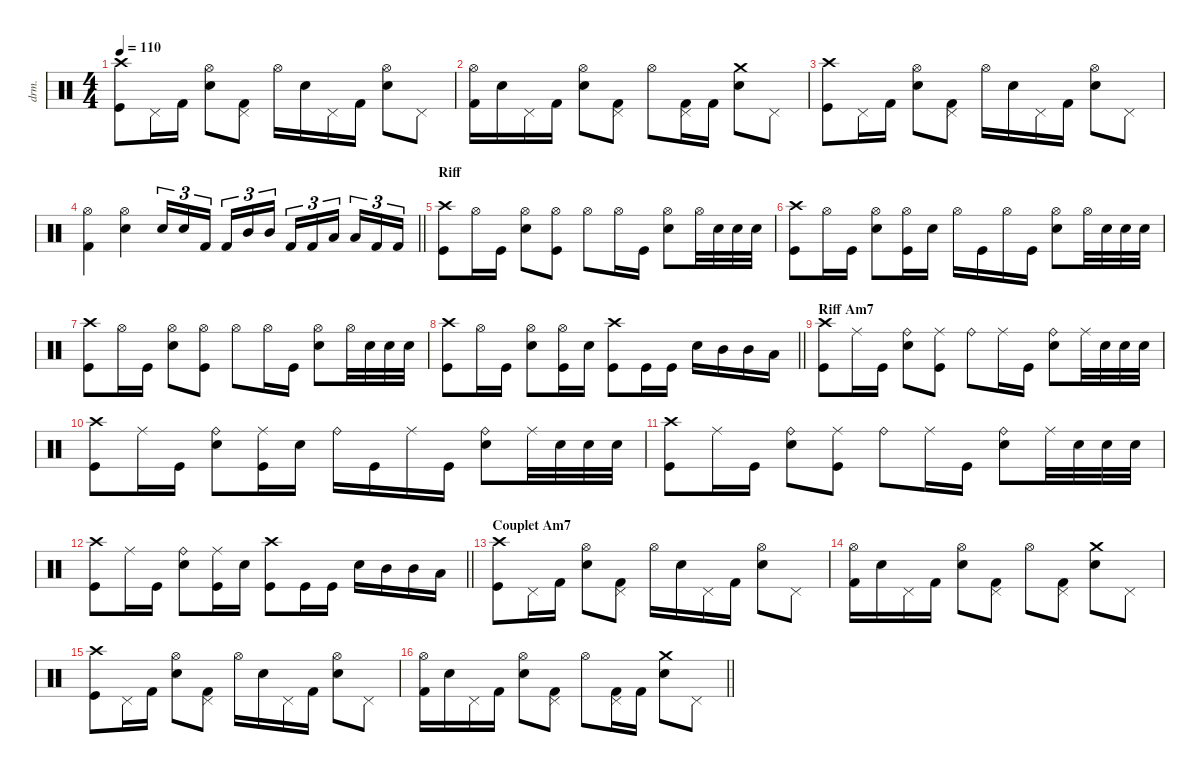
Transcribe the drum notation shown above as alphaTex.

\defaultSystemsLayout 4
\hideDynamics
\bracketExtendMode nobrackets
\otherSystemsTrackNameOrientation horizontal
\track ("Manu" "drm.") {instrument percussion}
\staff {score}
\articulation defaults
\ts (4 4)
\tempo 110
\clef neutral
\ks c
("Crash high (hit)" "Kick (hit)").8{dy f} "Pedal Hi-Hat (hit)".16 "Kick (hit) 2".16 ("Hi-Hat (open)" "Snare (hit) 2").8 ("Pedal Hi-Hat (hit)" "Kick (hit) 2").8 "Hi-Hat (open)".16 "Snare (hit) 2".16{dy mp} "Pedal Hi-Hat (hit)".16{dy f} "Kick (hit) 2".16{dy mp} ("Hi-Hat (open)" "Snare (hit) 2").8{dy f} "Pedal Hi-Hat (hit)".8 |
("Hi-Hat (open)" "Kick (hit) 2").16 "Snare (hit) 2".16{dy mp} "Pedal Hi-Hat (hit)".16{dy f} "Kick (hit) 2".16 ("Hi-Hat (open)" "Snare (hit) 2").8 ("Pedal Hi-Hat (hit)" "Kick (hit) 2").8 "Hi-Hat (open)".8 ("Pedal Hi-Hat (hit)" "Kick (hit) 2").16 "Kick (hit) 2".16 ("Snare (hit) 2" "Crash medium (hit)").8 "Pedal Hi-Hat (hit)".8 |
("Crash high (hit)" "Kick (hit)").8 "Pedal Hi-Hat (hit)".16 "Kick (hit) 2".16 ("Hi-Hat (open)" "Snare (hit) 2").8 ("Pedal Hi-Hat (hit)" "Kick (hit) 2").8 "Hi-Hat (open)".16 "Snare (hit) 2".16{dy mp} "Pedal Hi-Hat (hit)".16{dy f} "Kick (hit) 2".16{dy mp} ("Hi-Hat (open)" "Snare (hit) 2").8{dy f} "Pedal Hi-Hat (hit)".8 |
\barLineRight lightlight
("Hi-Hat (open)" "Kick (hit) 2").4 ("Hi-Hat (open)" "Snare (hit) 2").4 "Snare (hit) 2".16{tu (3 2)} "Snare (hit) 2".16{tu (3 2)} "Kick (hit) 2".16{tu (3 2)} "Kick (hit) 2".16{tu (3 2)} "Mid Tom (hit)".16{tu (3 2)} "Mid Tom (hit)".16{tu (3 2)} "Kick (hit) 2".16{tu (3 2)} "Kick (hit) 2".16{tu (3 2)} "Low Tom (hit)".16{tu (3 2)} "Low Tom (hit)".16{tu (3 2)} "Kick (hit) 2".16{tu (3 2)} "Kick (hit) 2".16{tu (3 2)} |
\section ("" "Riff")
("Crash high (hit)" "Kick (hit)").8 "Hi-Hat (open)".16{dy p} "Kick (hit)".16{dy f} ("Hi-Hat (open)" "Snare (hit) 2").8 ("Hi-Hat (open)" "Kick (hit)").8{dy p} "Hi-Hat (open)".8{dy f} "Hi-Hat (open)".16{dy p} "Kick (hit)".16{dy f} ("Hi-Hat (open)" "Snare (hit) 2").8 "Hi-Hat (open)".32{dy p} "Snare (hit) 2".32{dy pp} "Snare (hit) 2".32 "Snare (hit) 2".32 |
("Crash high (hit)" "Kick (hit)").8{dy f} "Hi-Hat (open)".16{dy p} "Kick (hit)".16{dy f} ("Hi-Hat (open)" "Snare (hit) 2").8 ("Hi-Hat (open)" "Kick (hit)").16{dy p} "Snare (hit) 2".16{dy pp} "Hi-Hat (open)".16{dy f} "Kick (hit)".16 "Hi-Hat (open)".16{dy p} "Kick (hit)".16{dy f} ("Hi-Hat (open)" "Snare (hit) 2").8 "Hi-Hat (open)".32{dy p} "Snare (hit) 2".32{dy pp} "Snare (hit) 2".32 "Snare (hit) 2".32 |
("Crash high (hit)" "Kick (hit)").8{dy f} "Hi-Hat (open)".16{dy p} "Kick (hit)".16{dy f} ("Hi-Hat (open)" "Snare (hit) 2").8 ("Hi-Hat (open)" "Kick (hit)").8{dy p} "Hi-Hat (open)".8{dy f} "Hi-Hat (open)".16{dy p} "Kick (hit)".16{dy f} ("Hi-Hat (open)" "Snare (hit) 2").8 "Hi-Hat (open)".32{dy p} "Snare (hit) 2".32{dy mp} "Snare (hit) 2".32 "Snare (hit) 2".32 |
\barLineRight lightlight
("Crash high (hit)" "Kick (hit)").8{dy f} "Hi-Hat (open)".16{dy p} "Kick (hit)".16{dy f} ("Hi-Hat (open)" "Snare (hit) 2").8 ("Hi-Hat (open)" "Kick (hit)").16{dy p} "Snare (hit) 2".16{dy pp} ("Crash high (hit)" "Kick (hit)").8{dy f} "Kick (hit)".16 "Kick (hit)".16 "Snare (hit) 2".16 "Mid Tom (hit)".16 "Mid Tom (hit)".16 "Low Tom (hit)".16 |
\section ("" "Riff Am7")
("Crash high (hit)" "Kick (hit)").8 "Ride (middle)".16{dy mf} "Kick (hit)".16{dy f} ("Ride (bell)" "Snare (hit) 2").8 ("Ride (middle)" "Kick (hit)").8{dy mf} "Ride (bell)".8{dy f} "Ride (middle)".16{dy mf} "Kick (hit)".16{dy f} ("Ride (bell)" "Snare (hit) 2").8 "Ride (middle)".32{dy mf} "Snare (hit) 2".32{dy pp} "Snare (hit) 2".32 "Snare (hit) 2".32 |
("Crash high (hit)" "Kick (hit)").8{dy f} "Ride (middle)".16{dy mf} "Kick (hit)".16{dy f} ("Ride (bell)" "Snare (hit) 2").8 ("Ride (middle)" "Kick (hit)").16{dy mf} "Snare (hit) 2".16{dy pp} "Ride (bell)".16{dy mf} "Kick (hit)".16{dy f} "Ride (middle)".16{dy mf} "Kick (hit)".16{dy f} ("Ride (bell)" "Snare (hit) 2").8 "Ride (middle)".32{dy mf} "Snare (hit) 2".32{dy pp} "Snare (hit) 2".32 "Snare (hit) 2".32 |
("Crash high (hit)" "Kick (hit)").8{dy f} "Ride (middle)".16{dy mf} "Kick (hit)".16{dy f} ("Ride (bell)" "Snare (hit) 2").8 ("Ride (middle)" "Kick (hit)").8{dy mf} "Ride (bell)".8{dy f} "Ride (middle)".16{dy mf} "Kick (hit)".16{dy f} ("Ride (bell)" "Snare (hit) 2").8 "Ride (middle)".32{dy mf} "Snare (hit) 2".32{dy pp} "Snare (hit) 2".32 "Snare (hit) 2".32 |
\barLineRight lightlight
("Crash high (hit)" "Kick (hit)").8{dy f} "Ride (middle)".16{dy mf} "Kick (hit)".16{dy f} ("Ride (bell)" "Snare (hit) 2").8 ("Ride (middle)" "Kick (hit)").16{dy mf} "Snare (hit) 2".16{dy pp} ("Crash high (hit)" "Kick (hit)").8{dy f} "Kick (hit)".16 "Kick (hit)".16 "Snare (hit) 2".16 "Mid Tom (hit)".16 "Mid Tom (hit)".16 "Low Tom (hit)".16 |
\section ("" "Couplet Am7")
("Crash high (hit)" "Kick (hit)").8 "Pedal Hi-Hat (hit)".16 "Kick (hit) 2".16 ("Hi-Hat (open)" "Snare (hit) 2").8 ("Pedal Hi-Hat (hit)" "Kick (hit) 2").8 "Hi-Hat (open)".16 "Snare (hit) 2".16{dy mp} "Pedal Hi-Hat (hit)".16{dy f} "Kick (hit) 2".16{dy mp} ("Hi-Hat (open)" "Snare (hit) 2").8{dy f} "Pedal Hi-Hat (hit)".8 |
("Hi-Hat (open)" "Kick (hit) 2").16 "Snare (hit) 2".16{dy mp} "Pedal Hi-Hat (hit)".16{dy f} "Kick (hit) 2".16 ("Hi-Hat (open)" "Snare (hit) 2").8 ("Pedal Hi-Hat (hit)" "Kick (hit) 2").8 "Hi-Hat (open)".8 ("Pedal Hi-Hat (hit)" "Kick (hit) 2").8{dy mp} ("Snare (hit) 2" "Crash medium (hit)").8{dy f} "Pedal Hi-Hat (hit)".8 |
("Crash high (hit)" "Kick (hit)").8 "Pedal Hi-Hat (hit)".16 "Kick (hit) 2".16 ("Hi-Hat (open)" "Snare (hit) 2").8 ("Pedal Hi-Hat (hit)" "Kick (hit) 2").8 "Hi-Hat (open)".16 "Snare (hit) 2".16{dy mp} "Pedal Hi-Hat (hit)".16{dy f} "Kick (hit) 2".16{dy mp} ("Hi-Hat (open)" "Snare (hit) 2").8{dy f} "Pedal Hi-Hat (hit)".8 |
\barLineRight lightlight
("Hi-Hat (open)" "Kick (hit) 2").16 "Snare (hit) 2".16{dy mp} "Pedal Hi-Hat (hit)".16{dy f} "Kick (hit) 2".16 ("Hi-Hat (open)" "Snare (hit) 2").8 ("Pedal Hi-Hat (hit)" "Kick (hit) 2").8 "Hi-Hat (open)".8 ("Pedal Hi-Hat (hit)" "Kick (hit) 2").16 "Kick (hit) 2".16 ("Snare (hit) 2" "Crash medium (hit)").8 "Pedal Hi-Hat (hit)".8
